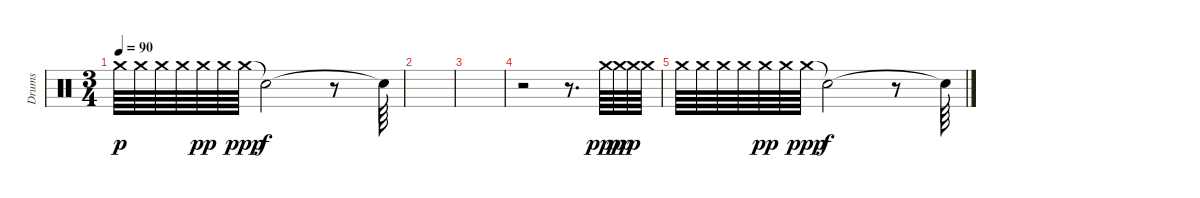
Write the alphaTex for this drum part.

\track ("Drums" "Drums") {instrument percussion}
\staff {score}
\articulation defaults
\ts (3 4)
\tempo 90
\clef neutral
\ks c "Crash medium (hit)".64{dy p} "Crash medium (hit)".64 "Crash medium (hit)".64 "Crash medium (hit)".64 "Crash medium (hit)".64{dy pp} "Crash medium (hit)".64 "Crash medium (hit)".64{dy ppp} "Snare (hit)"{t}.2{dy f}
r.8 "Snare (hit)"{t}.64 |
|
|
r.2 r.8{d} "Crash medium (hit)".64{dy ppp} "Crash medium (hit)".64{dy pp} "Crash medium (hit)".64{dy p} "Crash medium (hit)".64 |
"Crash medium (hit)".64 "Crash medium (hit)".64 "Crash medium (hit)".64 "Crash medium (hit)".64 "Crash medium (hit)".64{dy pp} "Crash medium (hit)".64 "Crash medium (hit)".64{dy ppp} "Snare (hit)"{t}.2{dy f} r.8 "Snare (hit)"{t}.64
